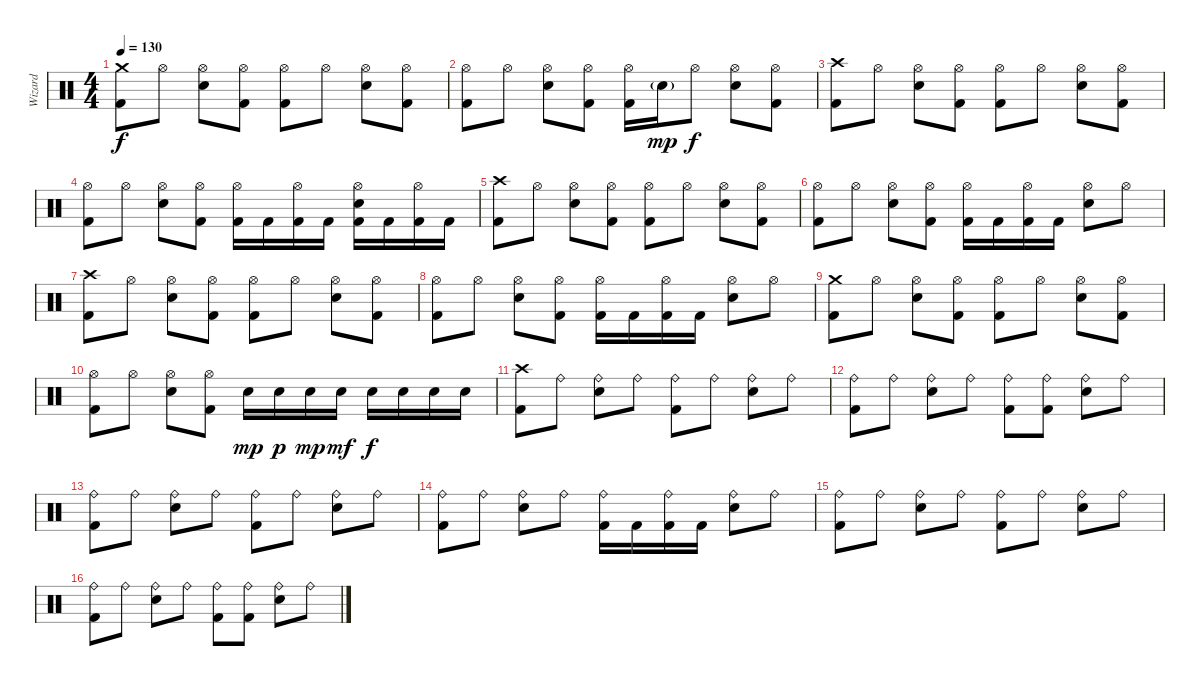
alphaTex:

\track ("Wizard" "Wizard") {instrument percussion}
\staff {score}
\articulation defaults
\ts (4 4)
\tempo 130
\clef neutral
\ks c
("Crash medium (hit)" "Kick (hit) 2").8{dy f} "Hi-Hat (open)".8 ("Hi-Hat (open)" "Snare (hit) 2").8 ("Hi-Hat (open)" "Kick (hit) 2").8 ("Hi-Hat (open)" "Kick (hit) 2").8 "Hi-Hat (open)".8 ("Hi-Hat (open)" "Snare (hit) 2").8 ("Hi-Hat (open)" "Kick (hit) 2").8 |
("Hi-Hat (open)" "Kick (hit) 2").8 "Hi-Hat (open)".8 ("Hi-Hat (open)" "Snare (hit) 2").8 ("Hi-Hat (open)" "Kick (hit) 2").8 ("Hi-Hat (open)" "Kick (hit) 2").16 "Snare (hit) 2"{g}.16{dy mp} "Hi-Hat (open)".8{dy f} ("Hi-Hat (open)" "Snare (hit) 2").8 ("Hi-Hat (open)" "Kick (hit) 2").8 |
("Crash high (hit)" "Kick (hit) 2").8 "Hi-Hat (open)".8 ("Hi-Hat (open)" "Snare (hit) 2").8 ("Hi-Hat (open)" "Kick (hit) 2").8 ("Hi-Hat (open)" "Kick (hit) 2").8 "Hi-Hat (open)".8 ("Hi-Hat (open)" "Snare (hit) 2").8 ("Hi-Hat (open)" "Kick (hit) 2").8 |
("Hi-Hat (open)" "Kick (hit) 2").8 "Hi-Hat (open)".8 ("Hi-Hat (open)" "Snare (hit) 2").8 ("Hi-Hat (open)" "Kick (hit) 2").8 ("Hi-Hat (open)" "Kick (hit) 2").16 "Kick (hit) 2".16 ("Hi-Hat (open)" "Kick (hit) 2").16 "Kick (hit) 2".16 ("Hi-Hat (open)" "Snare (hit) 2" "Kick (hit) 2").16 "Kick (hit) 2".16 ("Hi-Hat (open)" "Kick (hit) 2").16 "Kick (hit) 2".16 |
("Crash high (hit)" "Kick (hit) 2").8 "Hi-Hat (open)".8 ("Hi-Hat (open)" "Snare (hit) 2").8 ("Hi-Hat (open)" "Kick (hit) 2").8 ("Hi-Hat (open)" "Kick (hit) 2").8 "Hi-Hat (open)".8 ("Hi-Hat (open)" "Snare (hit) 2").8 ("Hi-Hat (open)" "Kick (hit) 2").8 |
("Hi-Hat (open)" "Kick (hit) 2").8 "Hi-Hat (open)".8 ("Hi-Hat (open)" "Snare (hit) 2").8 ("Hi-Hat (open)" "Kick (hit) 2").8 ("Hi-Hat (open)" "Kick (hit) 2").16 "Kick (hit) 2".16 ("Hi-Hat (open)" "Kick (hit) 2").16 "Kick (hit) 2".16 ("Hi-Hat (open)" "Snare (hit) 2").8 "Hi-Hat (open)".8 |
("Crash high (hit)" "Kick (hit) 2").8 "Hi-Hat (open)".8 ("Hi-Hat (open)" "Snare (hit) 2").8 ("Hi-Hat (open)" "Kick (hit) 2").8 ("Hi-Hat (open)" "Kick (hit) 2").8 "Hi-Hat (open)".8 ("Hi-Hat (open)" "Snare (hit) 2").8 ("Hi-Hat (open)" "Kick (hit) 2").8 |
("Hi-Hat (open)" "Kick (hit) 2").8 "Hi-Hat (open)".8 ("Hi-Hat (open)" "Snare (hit) 2").8 ("Hi-Hat (open)" "Kick (hit) 2").8 ("Hi-Hat (open)" "Kick (hit) 2").16 "Kick (hit) 2".16 ("Hi-Hat (open)" "Kick (hit) 2").16 "Kick (hit) 2".16 ("Hi-Hat (open)" "Snare (hit) 2").8 "Hi-Hat (open)".8 |
("Crash medium (hit)" "Kick (hit) 2").8 "Hi-Hat (open)".8 ("Hi-Hat (open)" "Snare (hit) 2").8 ("Hi-Hat (open)" "Kick (hit) 2").8 ("Hi-Hat (open)" "Kick (hit) 2").8 "Hi-Hat (open)".8 ("Hi-Hat (open)" "Snare (hit) 2").8 ("Hi-Hat (open)" "Kick (hit) 2").8 |
("Hi-Hat (open)" "Kick (hit) 2").8 "Hi-Hat (open)".8 ("Hi-Hat (open)" "Snare (hit) 2").8 ("Hi-Hat (open)" "Kick (hit) 2").8 "Snare (hit) 2".16{dy mp} "Snare (hit) 2".16{dy p} "Snare (hit) 2".16{dy mp} "Snare (hit) 2".16{dy mf} "Snare (hit) 2".16{dy f} "Snare (hit) 2".16 "Snare (hit) 2".16 "Snare (hit) 2".16 |
("Crash high (hit)" "Kick (hit) 2").8 "Ride (bell)".8 ("Ride (bell)" "Snare (hit) 2").8 "Ride (bell)".8 ("Ride (bell)" "Kick (hit) 2").8 "Ride (bell)".8 ("Ride (bell)" "Snare (hit) 2").8 "Ride (bell)".8 |
("Ride (bell)" "Kick (hit) 2").8 "Ride (bell)".8 ("Ride (bell)" "Snare (hit) 2").8 "Ride (bell)".8 ("Ride (bell)" "Kick (hit) 2").8 ("Ride (bell)" "Kick (hit) 2").8 ("Ride (bell)" "Snare (hit) 2").8 "Ride (bell)".8 |
("Ride (bell)" "Kick (hit) 2").8 "Ride (bell)".8 ("Ride (bell)" "Snare (hit) 2").8 "Ride (bell)".8 ("Ride (bell)" "Kick (hit) 2").8 "Ride (bell)".8 ("Ride (bell)" "Snare (hit) 2").8 "Ride (bell)".8 |
("Ride (bell)" "Kick (hit) 2").8 "Ride (bell)".8 ("Ride (bell)" "Snare (hit) 2").8 "Ride (bell)".8 ("Ride (bell)" "Kick (hit) 2").16 "Kick (hit) 2".16 ("Ride (bell)" "Kick (hit) 2").16 "Kick (hit) 2".16 ("Ride (bell)" "Snare (hit) 2").8 "Ride (bell)".8 |
("Ride (bell)" "Kick (hit) 2").8 "Ride (bell)".8 ("Ride (bell)" "Snare (hit) 2").8 "Ride (bell)".8 ("Ride (bell)" "Kick (hit) 2").8 "Ride (bell)".8 ("Ride (bell)" "Snare (hit) 2").8 "Ride (bell)".8 |
("Ride (bell)" "Kick (hit) 2").8 "Ride (bell)".8 ("Ride (bell)" "Snare (hit) 2").8 "Ride (bell)".8 ("Ride (bell)" "Kick (hit) 2").8 ("Ride (bell)" "Kick (hit) 2").8 ("Ride (bell)" "Snare (hit) 2").8 "Ride (bell)".8
